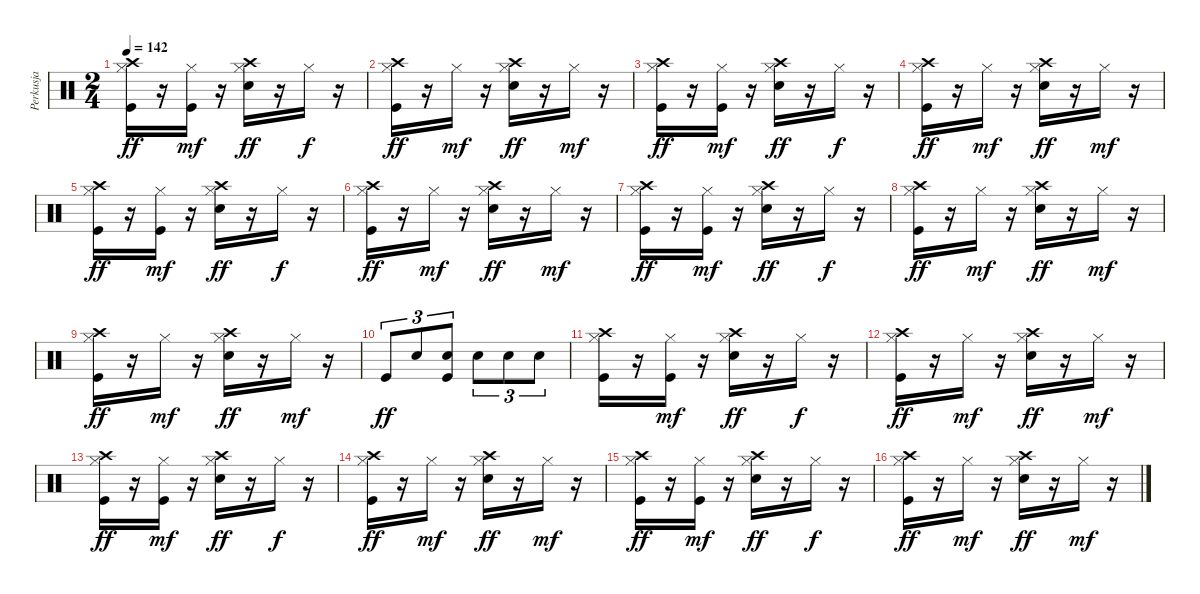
\track ("Perkusja" "Perkusja") {instrument percussion}
\staff {score}
\articulation defaults
\ts (2 4)
\tempo 142
\clef neutral
\ks c
("Kick (hit)" "Hi-Hat (closed)" "Crash high (hit)").16{dy ff} r.16 ("Kick (hit)" "Hi-Hat (closed)").16{dy mf} r.16 ("Snare (hit) 2" "Hi-Hat (closed)" "Crash high (hit)").16{dy ff} r.16 "Hi-Hat (closed)".16{dy f} r.16 |
("Kick (hit)" "Hi-Hat (closed)" "Crash high (hit)").16{dy ff} r.16 "Hi-Hat (closed)".16{dy mf} r.16 ("Snare (hit) 2" "Hi-Hat (closed)" "Crash high (hit)").16{dy ff} r.16 "Hi-Hat (closed)".16{dy mf} r.16 |
("Kick (hit)" "Hi-Hat (closed)" "Crash high (hit)").16{dy ff} r.16 ("Kick (hit)" "Hi-Hat (closed)").16{dy mf} r.16 ("Snare (hit) 2" "Hi-Hat (closed)" "Crash high (hit)").16{dy ff} r.16 "Hi-Hat (closed)".16{dy f} r.16 |
("Kick (hit)" "Hi-Hat (closed)" "Crash high (hit)").16{dy ff} r.16 "Hi-Hat (closed)".16{dy mf} r.16 ("Snare (hit) 2" "Hi-Hat (closed)" "Crash high (hit)").16{dy ff} r.16 "Hi-Hat (closed)".16{dy mf} r.16 |
("Kick (hit)" "Hi-Hat (closed)" "Crash high (hit)").16{dy ff} r.16 ("Kick (hit)" "Hi-Hat (closed)").16{dy mf} r.16 ("Snare (hit) 2" "Hi-Hat (closed)" "Crash high (hit)").16{dy ff} r.16 "Hi-Hat (closed)".16{dy f} r.16 |
("Kick (hit)" "Hi-Hat (closed)" "Crash high (hit)").16{dy ff} r.16 "Hi-Hat (closed)".16{dy mf} r.16 ("Snare (hit) 2" "Hi-Hat (closed)" "Crash high (hit)").16{dy ff} r.16 "Hi-Hat (closed)".16{dy mf} r.16 |
("Kick (hit)" "Hi-Hat (closed)" "Crash high (hit)").16{dy ff} r.16 ("Kick (hit)" "Hi-Hat (closed)").16{dy mf} r.16 ("Snare (hit) 2" "Hi-Hat (closed)" "Crash high (hit)").16{dy ff} r.16 "Hi-Hat (closed)".16{dy f} r.16 |
("Kick (hit)" "Hi-Hat (closed)" "Crash high (hit)").16{dy ff} r.16 "Hi-Hat (closed)".16{dy mf} r.16 ("Snare (hit) 2" "Hi-Hat (closed)" "Crash high (hit)").16{dy ff} r.16 "Hi-Hat (closed)".16{dy mf} r.16 |
("Kick (hit)" "Hi-Hat (closed)" "Crash high (hit)").16{dy ff} r.16 "Hi-Hat (closed)".16{dy mf} r.16 ("Snare (hit) 2" "Hi-Hat (closed)" "Crash high (hit)").16{dy ff} r.16 "Hi-Hat (closed)".16{dy mf} r.16 |
"Kick (hit)".8{tu (3 2) dy ff} "Snare (hit) 2".8{tu (3 2)} ("Kick (hit)" "Snare (hit) 2").8{tu (3 2)} "Snare (hit) 2".8{tu (3 2)} "Snare (hit) 2".8{tu (3 2)} "Snare (hit) 2".8{tu (3 2)} |
("Kick (hit)" "Hi-Hat (closed)" "Crash high (hit)").16 r.16 ("Kick (hit)" "Hi-Hat (closed)").16{dy mf} r.16 ("Snare (hit) 2" "Hi-Hat (closed)" "Crash high (hit)").16{dy ff} r.16 "Hi-Hat (closed)".16{dy f} r.16 |
("Kick (hit)" "Hi-Hat (closed)" "Crash high (hit)").16{dy ff} r.16 "Hi-Hat (closed)".16{dy mf} r.16 ("Snare (hit) 2" "Hi-Hat (closed)" "Crash high (hit)").16{dy ff} r.16 "Hi-Hat (closed)".16{dy mf} r.16 |
("Kick (hit)" "Hi-Hat (closed)" "Crash high (hit)").16{dy ff} r.16 ("Kick (hit)" "Hi-Hat (closed)").16{dy mf} r.16 ("Snare (hit) 2" "Hi-Hat (closed)" "Crash high (hit)").16{dy ff} r.16 "Hi-Hat (closed)".16{dy f} r.16 |
("Kick (hit)" "Hi-Hat (closed)" "Crash high (hit)").16{dy ff} r.16 "Hi-Hat (closed)".16{dy mf} r.16 ("Snare (hit) 2" "Hi-Hat (closed)" "Crash high (hit)").16{dy ff} r.16 "Hi-Hat (closed)".16{dy mf} r.16 |
("Kick (hit)" "Hi-Hat (closed)" "Crash high (hit)").16{dy ff} r.16 ("Kick (hit)" "Hi-Hat (closed)").16{dy mf} r.16 ("Snare (hit) 2" "Hi-Hat (closed)" "Crash high (hit)").16{dy ff} r.16 "Hi-Hat (closed)".16{dy f} r.16 |
("Kick (hit)" "Hi-Hat (closed)" "Crash high (hit)").16{dy ff} r.16 "Hi-Hat (closed)".16{dy mf} r.16 ("Snare (hit) 2" "Hi-Hat (closed)" "Crash high (hit)").16{dy ff} r.16 "Hi-Hat (closed)".16{dy mf} r.16
